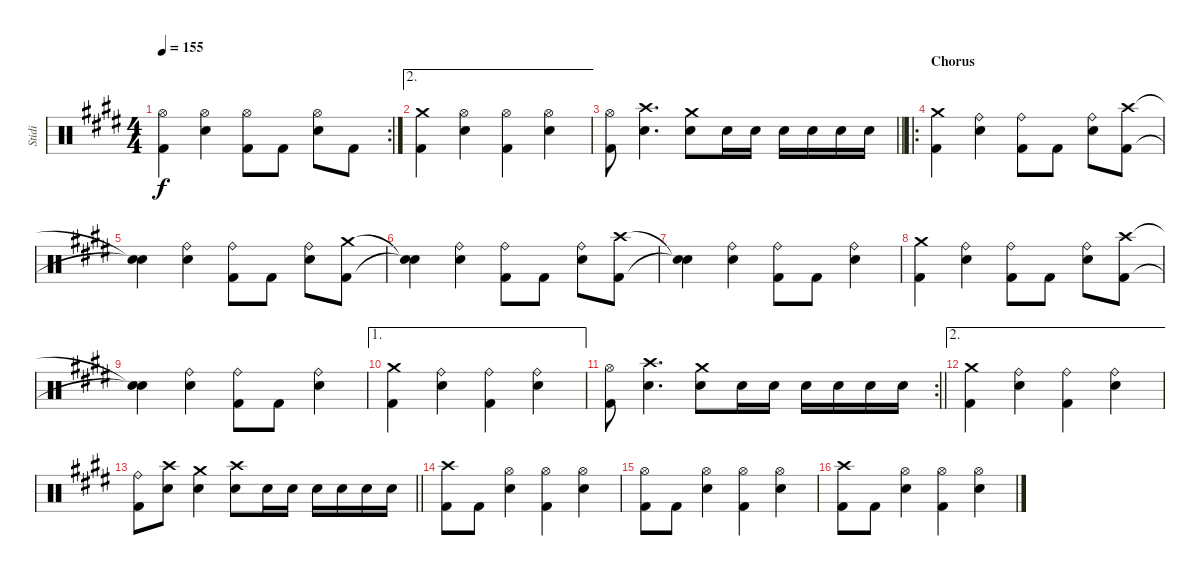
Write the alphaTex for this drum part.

\track ("Stidi" "Stidi") {instrument percussion}
\staff {score}
\articulation defaults
\rc 2
\ts (4 4)
\tempo 155
\clef neutral
\ks e
("Hi-Hat (open)" "Kick (hit) 2").4{dy f} ("Hi-Hat (open)" "Snare (hit) 2").4 ("Hi-Hat (open)" "Kick (hit) 2").8 "Kick (hit) 2".8 ("Hi-Hat (open)" "Snare (hit) 2").8 "Kick (hit) 2".8 |
\ae 2
("Crash medium (hit)" "Kick (hit) 2").4 ("Hi-Hat (open)" "Snare (hit) 2").4 ("Hi-Hat (open)" "Kick (hit) 2").4 ("Hi-Hat (open)" "Snare (hit) 2").4 |
\barLineRight lightlight
("Hi-Hat (open)" "Kick (hit) 2").8 ("Crash high (hit)" "Snare (hit) 2").4{d} ("Crash medium (hit)" "Snare (hit) 2").8 "Snare (hit) 2".16 "Snare (hit) 2".16 "Snare (hit) 2".16 "Snare (hit) 2".16 "Snare (hit) 2".16 "Snare (hit) 2".16 |
\ro
\section ("" "Chorus")
("Crash medium (hit)" "Kick (hit) 2").4 ("Ride (bell)" "Snare (hit) 2").4 ("Ride (bell)" "Kick (hit) 2").8 "Kick (hit) 2".8 ("Ride (bell)" "Snare (hit) 2").8 ("Crash high (hit)" "Kick (hit) 2").8 |
("Snare (hit)"{t} "Snare (hit)"{t}).4 ("Ride (bell)" "Snare (hit) 2").4 ("Ride (bell)" "Kick (hit) 2").8 "Kick (hit) 2".8 ("Ride (bell)" "Snare (hit) 2").8 ("Crash medium (hit)" "Kick (hit) 2").8 |
("Snare (hit)"{t} "Snare (hit)"{t}).4 ("Ride (bell)" "Snare (hit) 2").4 ("Ride (bell)" "Kick (hit) 2").8 "Kick (hit) 2".8 ("Ride (bell)" "Snare (hit) 2").8 ("Crash high (hit)" "Kick (hit) 2").8 |
("Snare (hit)"{t} "Snare (hit)"{t}).4 ("Ride (bell)" "Snare (hit) 2").4 ("Ride (bell)" "Kick (hit) 2").8 "Kick (hit) 2".8 ("Ride (bell)" "Snare (hit) 2").4 |
("Crash medium (hit)" "Kick (hit) 2").4 ("Ride (bell)" "Snare (hit) 2").4 ("Ride (bell)" "Kick (hit) 2").8 "Kick (hit) 2".8 ("Ride (bell)" "Snare (hit) 2").8 ("Crash high (hit)" "Kick (hit) 2").8 |
("Snare (hit)"{t} "Snare (hit)"{t}).4 ("Ride (bell)" "Snare (hit) 2").4 ("Ride (bell)" "Kick (hit) 2").8 "Kick (hit) 2".8 ("Ride (bell)" "Snare (hit) 2").4 |
\ae 1
("Crash medium (hit)" "Kick (hit) 2").4 ("Ride (bell)" "Snare (hit) 2").4 ("Ride (bell)" "Kick (hit) 2").4 ("Ride (bell)" "Snare (hit) 2").4 |
\rc 2
\barLineRight lightlight
("Hi-Hat (open)" "Kick (hit) 2").8 ("Crash high (hit)" "Snare (hit) 2").4{d} ("Crash medium (hit)" "Snare (hit) 2").8 "Snare (hit) 2".16 "Snare (hit) 2".16 "Snare (hit) 2".16 "Snare (hit) 2".16 "Snare (hit) 2".16 "Snare (hit) 2".16 |
\ae 2
("Crash medium (hit)" "Kick (hit) 2").4 ("Ride (bell)" "Snare (hit) 2").4 ("Ride (bell)" "Kick (hit) 2").4 ("Ride (bell)" "Snare (hit) 2").4 |
\barLineRight lightlight
("Ride (bell)" "Kick (hit) 2").8 ("Crash high (hit)" "Snare (hit) 2").8 ("Crash medium (hit)" "Snare (hit) 2").4 ("Crash high (hit)" "Snare (hit) 2").8 "Snare (hit) 2".16 "Snare (hit) 2".16 "Snare (hit) 2".16 "Snare (hit) 2".16 "Snare (hit) 2".16 "Snare (hit) 2".16 |
("Crash high (hit)" "Kick (hit) 2").8 "Kick (hit) 2".8 ("Hi-Hat (open)" "Snare (hit) 2").4 ("Hi-Hat (open)" "Kick (hit) 2").4 ("Hi-Hat (open)" "Snare (hit) 2").4 |
("Hi-Hat (open)" "Kick (hit) 2").8 "Kick (hit) 2".8 ("Hi-Hat (open)" "Snare (hit) 2").4 ("Hi-Hat (open)" "Kick (hit) 2").4 ("Hi-Hat (open)" "Snare (hit) 2").4 |
("Crash high (hit)" "Kick (hit) 2").8 "Kick (hit) 2".8 ("Hi-Hat (open)" "Snare (hit) 2").4 ("Hi-Hat (open)" "Kick (hit) 2").4 ("Hi-Hat (open)" "Snare (hit) 2").4
